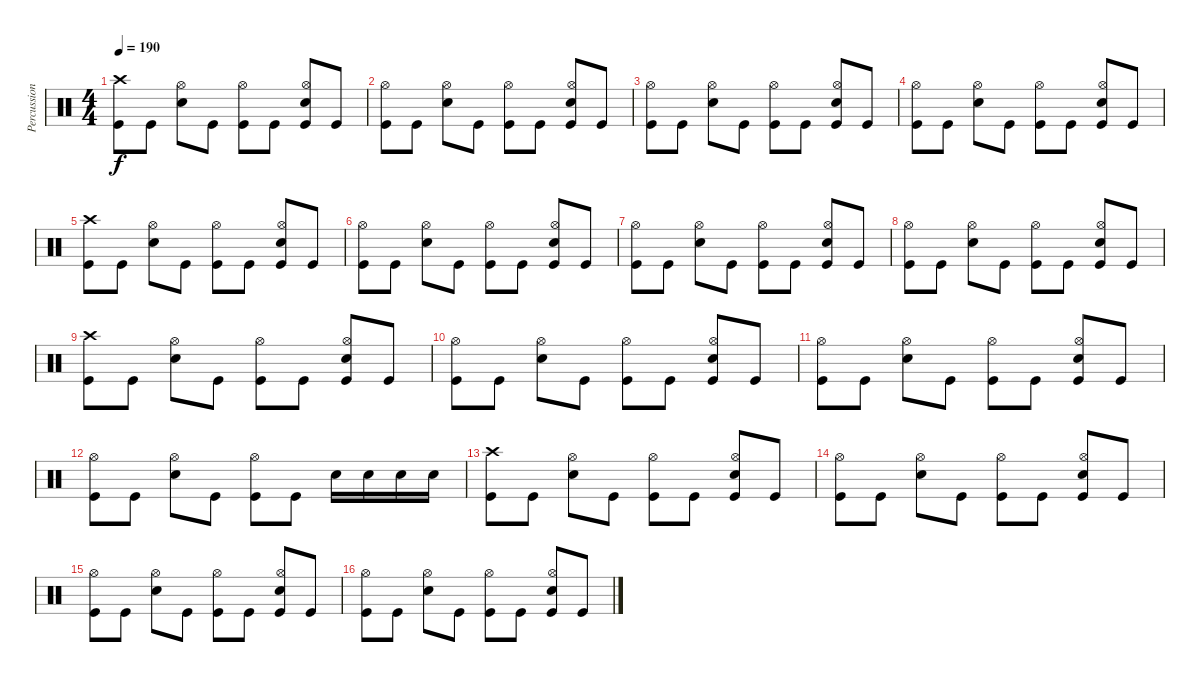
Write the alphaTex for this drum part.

\track ("Percussion" "Percussion") {instrument percussion}
\staff {score}
\articulation defaults
\ts (4 4)
\tempo 190
\clef neutral
\ks c
("Crash high (hit)" "Kick (hit)").8{dy f} "Kick (hit)".8 ("Hi-Hat (open)" "Snare (hit) 2").8 "Kick (hit)".8 ("Hi-Hat (open)" "Kick (hit)").8 "Kick (hit)".8 ("Hi-Hat (open)" "Snare (hit) 2" "Kick (hit)").8 "Kick (hit)".8 |
("Hi-Hat (open)" "Kick (hit)").8 "Kick (hit)".8 ("Hi-Hat (open)" "Snare (hit) 2").8 "Kick (hit)".8 ("Hi-Hat (open)" "Kick (hit)").8 "Kick (hit)".8 ("Hi-Hat (open)" "Snare (hit) 2" "Kick (hit)").8 "Kick (hit)".8 |
("Hi-Hat (open)" "Kick (hit)").8 "Kick (hit)".8 ("Hi-Hat (open)" "Snare (hit) 2").8 "Kick (hit)".8 ("Hi-Hat (open)" "Kick (hit)").8 "Kick (hit)".8 ("Hi-Hat (open)" "Snare (hit) 2" "Kick (hit)").8 "Kick (hit)".8 |
("Hi-Hat (open)" "Kick (hit)").8 "Kick (hit)".8 ("Hi-Hat (open)" "Snare (hit) 2").8 "Kick (hit)".8 ("Hi-Hat (open)" "Kick (hit)").8 "Kick (hit)".8 ("Hi-Hat (open)" "Snare (hit) 2" "Kick (hit)").8 "Kick (hit)".8 |
("Crash high (hit)" "Kick (hit)").8 "Kick (hit)".8 ("Hi-Hat (open)" "Snare (hit) 2").8 "Kick (hit)".8 ("Hi-Hat (open)" "Kick (hit)").8 "Kick (hit)".8 ("Hi-Hat (open)" "Snare (hit) 2" "Kick (hit)").8 "Kick (hit)".8 |
("Hi-Hat (open)" "Kick (hit)").8 "Kick (hit)".8 ("Hi-Hat (open)" "Snare (hit) 2").8 "Kick (hit)".8 ("Hi-Hat (open)" "Kick (hit)").8 "Kick (hit)".8 ("Hi-Hat (open)" "Snare (hit) 2" "Kick (hit)").8 "Kick (hit)".8 |
("Hi-Hat (open)" "Kick (hit)").8 "Kick (hit)".8 ("Hi-Hat (open)" "Snare (hit) 2").8 "Kick (hit)".8 ("Hi-Hat (open)" "Kick (hit)").8 "Kick (hit)".8 ("Hi-Hat (open)" "Snare (hit) 2" "Kick (hit)").8 "Kick (hit)".8 |
("Hi-Hat (open)" "Kick (hit)").8 "Kick (hit)".8 ("Hi-Hat (open)" "Snare (hit) 2").8 "Kick (hit)".8 ("Hi-Hat (open)" "Kick (hit)").8 "Kick (hit)".8 ("Hi-Hat (open)" "Snare (hit) 2" "Kick (hit)").8 "Kick (hit)".8 |
("Crash high (hit)" "Kick (hit)").8 "Kick (hit)".8 ("Hi-Hat (open)" "Snare (hit) 2").8 "Kick (hit)".8 ("Hi-Hat (open)" "Kick (hit)").8 "Kick (hit)".8 ("Hi-Hat (open)" "Snare (hit) 2" "Kick (hit)").8 "Kick (hit)".8 |
("Hi-Hat (open)" "Kick (hit)").8 "Kick (hit)".8 ("Hi-Hat (open)" "Snare (hit) 2").8 "Kick (hit)".8 ("Hi-Hat (open)" "Kick (hit)").8 "Kick (hit)".8 ("Hi-Hat (open)" "Snare (hit) 2" "Kick (hit)").8 "Kick (hit)".8 |
("Hi-Hat (open)" "Kick (hit)").8 "Kick (hit)".8 ("Hi-Hat (open)" "Snare (hit) 2").8 "Kick (hit)".8 ("Hi-Hat (open)" "Kick (hit)").8 "Kick (hit)".8 ("Hi-Hat (open)" "Snare (hit) 2" "Kick (hit)").8 "Kick (hit)".8 |
("Hi-Hat (open)" "Kick (hit)").8 "Kick (hit)".8 ("Hi-Hat (open)" "Snare (hit) 2").8 "Kick (hit)".8 ("Hi-Hat (open)" "Kick (hit)").8 "Kick (hit)".8 "Snare (hit) 2".16 "Snare (hit) 2".16 "Snare (hit) 2".16 "Snare (hit) 2".16 |
("Crash high (hit)" "Kick (hit)").8 "Kick (hit)".8 ("Hi-Hat (open)" "Snare (hit) 2").8 "Kick (hit)".8 ("Hi-Hat (open)" "Kick (hit)").8 "Kick (hit)".8 ("Hi-Hat (open)" "Snare (hit) 2" "Kick (hit)").8 "Kick (hit)".8 |
("Hi-Hat (open)" "Kick (hit)").8 "Kick (hit)".8 ("Hi-Hat (open)" "Snare (hit) 2").8 "Kick (hit)".8 ("Hi-Hat (open)" "Kick (hit)").8 "Kick (hit)".8 ("Hi-Hat (open)" "Snare (hit) 2" "Kick (hit)").8 "Kick (hit)".8 |
("Hi-Hat (open)" "Kick (hit)").8 "Kick (hit)".8 ("Hi-Hat (open)" "Snare (hit) 2").8 "Kick (hit)".8 ("Hi-Hat (open)" "Kick (hit)").8 "Kick (hit)".8 ("Hi-Hat (open)" "Snare (hit) 2" "Kick (hit)").8 "Kick (hit)".8 |
("Hi-Hat (open)" "Kick (hit)").8 "Kick (hit)".8 ("Hi-Hat (open)" "Snare (hit) 2").8 "Kick (hit)".8 ("Hi-Hat (open)" "Kick (hit)").8 "Kick (hit)".8 ("Hi-Hat (open)" "Snare (hit) 2" "Kick (hit)").8 "Kick (hit)".8
